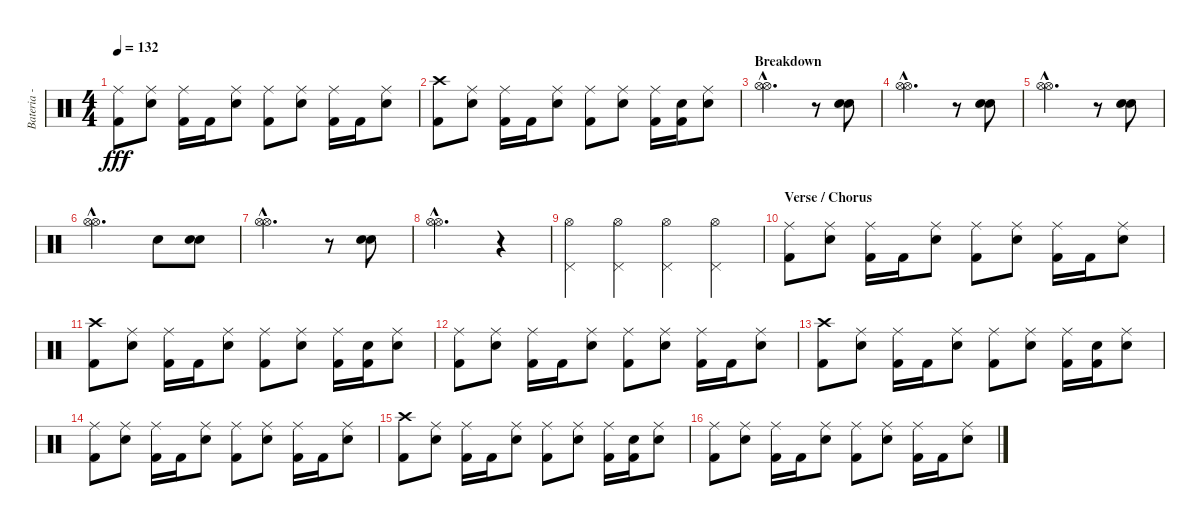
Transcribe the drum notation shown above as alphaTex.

\track ("Bateria - Larzon" "Bateria - ") {instrument percussion}
\staff {score}
\articulation defaults
\ts (4 4)
\tempo 132
\clef neutral
\ks c
("Kick (hit) 2" "Ride (middle)").8{dy fff} ("Electric Snare (hit)" "Ride (middle)").8 ("Kick (hit) 2" "Ride (middle)").16 "Kick (hit) 2".16 ("Electric Snare (hit)" "Ride (middle)").8 ("Kick (hit) 2" "Ride (middle)").8 ("Electric Snare (hit)" "Ride (middle)").8 ("Kick (hit) 2" "Ride (middle)").16 "Kick (hit) 2".16 ("Electric Snare (hit)" "Ride (middle)").8 |
("Kick (hit) 2" "Crash high (hit)").8 ("Electric Snare (hit)" "Ride (middle)").8 ("Ride (middle)" "Kick (hit) 2").16 "Kick (hit) 2".16 ("Electric Snare (hit)" "Ride (middle)").8 ("Kick (hit) 2" "Ride (middle)").8 ("Electric Snare (hit)" "Ride (middle)").8 ("Kick (hit) 2" "Ride (middle)").16 ("Kick (hit) 2" "Electric Snare (hit)").16 ("Electric Snare (hit)" "Ride (middle)").8 |
\section ("" "Breakdown")
("Hi-Hat (open)"{hac} "Hi-Hat (open)"{hac}).2{d} r.8 ("Electric Snare (hit)" "Electric Snare (hit)").8 |
("Hi-Hat (open)"{hac} "Hi-Hat (open)"{hac}).2{d} r.8 ("Electric Snare (hit)" "Electric Snare (hit)").8 |
("Hi-Hat (open)"{hac} "Hi-Hat (open)"{hac}).2{d} r.8 ("Electric Snare (hit)" "Electric Snare (hit)").8 |
("Hi-Hat (open)"{hac} "Hi-Hat (open)"{hac}).2{d} "Electric Snare (hit)".8 ("Electric Snare (hit)" "Electric Snare (hit)").8 |
("Hi-Hat (open)"{hac} "Hi-Hat (open)"{hac}).2{d} r.8 ("Electric Snare (hit)" "Electric Snare (hit)").8 |
("Hi-Hat (open)"{hac} "Hi-Hat (open)"{hac}).2{d} r.4 |
("Pedal Hi-Hat (hit)" "Hi-Hat (open)").4 ("Pedal Hi-Hat (hit)" "Hi-Hat (open)").4 ("Pedal Hi-Hat (hit)" "Hi-Hat (open)").4 ("Pedal Hi-Hat (hit)" "Hi-Hat (open)").4 |
\section ("" "Verse / Chorus")
("Kick (hit) 2" "Ride (middle)").8 ("Electric Snare (hit)" "Ride (middle)").8 ("Kick (hit) 2" "Ride (middle)").16 "Kick (hit) 2".16 ("Electric Snare (hit)" "Ride (middle)").8 ("Kick (hit) 2" "Ride (middle)").8 ("Electric Snare (hit)" "Ride (middle)").8 ("Kick (hit) 2" "Ride (middle)").16 "Kick (hit) 2".16 ("Electric Snare (hit)" "Ride (middle)").8 |
("Kick (hit) 2" "Crash high (hit)").8 ("Electric Snare (hit)" "Ride (middle)").8 ("Ride (middle)" "Kick (hit) 2").16 "Kick (hit) 2".16 ("Electric Snare (hit)" "Ride (middle)").8 ("Kick (hit) 2" "Ride (middle)").8 ("Electric Snare (hit)" "Ride (middle)").8 ("Kick (hit) 2" "Ride (middle)").16 ("Kick (hit) 2" "Electric Snare (hit)").16 ("Electric Snare (hit)" "Ride (middle)").8 |
("Kick (hit) 2" "Ride (middle)").8 ("Electric Snare (hit)" "Ride (middle)").8 ("Kick (hit) 2" "Ride (middle)").16 "Kick (hit) 2".16 ("Electric Snare (hit)" "Ride (middle)").8 ("Kick (hit) 2" "Ride (middle)").8 ("Electric Snare (hit)" "Ride (middle)").8 ("Kick (hit) 2" "Ride (middle)").16 "Kick (hit) 2".16 ("Electric Snare (hit)" "Ride (middle)").8 |
("Kick (hit) 2" "Crash high (hit)").8 ("Electric Snare (hit)" "Ride (middle)").8 ("Ride (middle)" "Kick (hit) 2").16 "Kick (hit) 2".16 ("Electric Snare (hit)" "Ride (middle)").8 ("Kick (hit) 2" "Ride (middle)").8 ("Electric Snare (hit)" "Ride (middle)").8 ("Kick (hit) 2" "Ride (middle)").16 ("Kick (hit) 2" "Electric Snare (hit)").16 ("Electric Snare (hit)" "Ride (middle)").8 |
("Kick (hit) 2" "Ride (middle)").8 ("Electric Snare (hit)" "Ride (middle)").8 ("Kick (hit) 2" "Ride (middle)").16 "Kick (hit) 2".16 ("Electric Snare (hit)" "Ride (middle)").8 ("Kick (hit) 2" "Ride (middle)").8 ("Electric Snare (hit)" "Ride (middle)").8 ("Kick (hit) 2" "Ride (middle)").16 "Kick (hit) 2".16 ("Electric Snare (hit)" "Ride (middle)").8 |
("Kick (hit) 2" "Crash high (hit)").8 ("Electric Snare (hit)" "Ride (middle)").8 ("Ride (middle)" "Kick (hit) 2").16 "Kick (hit) 2".16 ("Electric Snare (hit)" "Ride (middle)").8 ("Kick (hit) 2" "Ride (middle)").8 ("Electric Snare (hit)" "Ride (middle)").8 ("Kick (hit) 2" "Ride (middle)").16 ("Kick (hit) 2" "Electric Snare (hit)").16 ("Electric Snare (hit)" "Ride (middle)").8 |
("Kick (hit) 2" "Ride (middle)").8 ("Electric Snare (hit)" "Ride (middle)").8 ("Kick (hit) 2" "Ride (middle)").16 "Kick (hit) 2".16 ("Electric Snare (hit)" "Ride (middle)").8 ("Kick (hit) 2" "Ride (middle)").8 ("Electric Snare (hit)" "Ride (middle)").8 ("Kick (hit) 2" "Ride (middle)").16 "Kick (hit) 2".16 ("Electric Snare (hit)" "Ride (middle)").8
